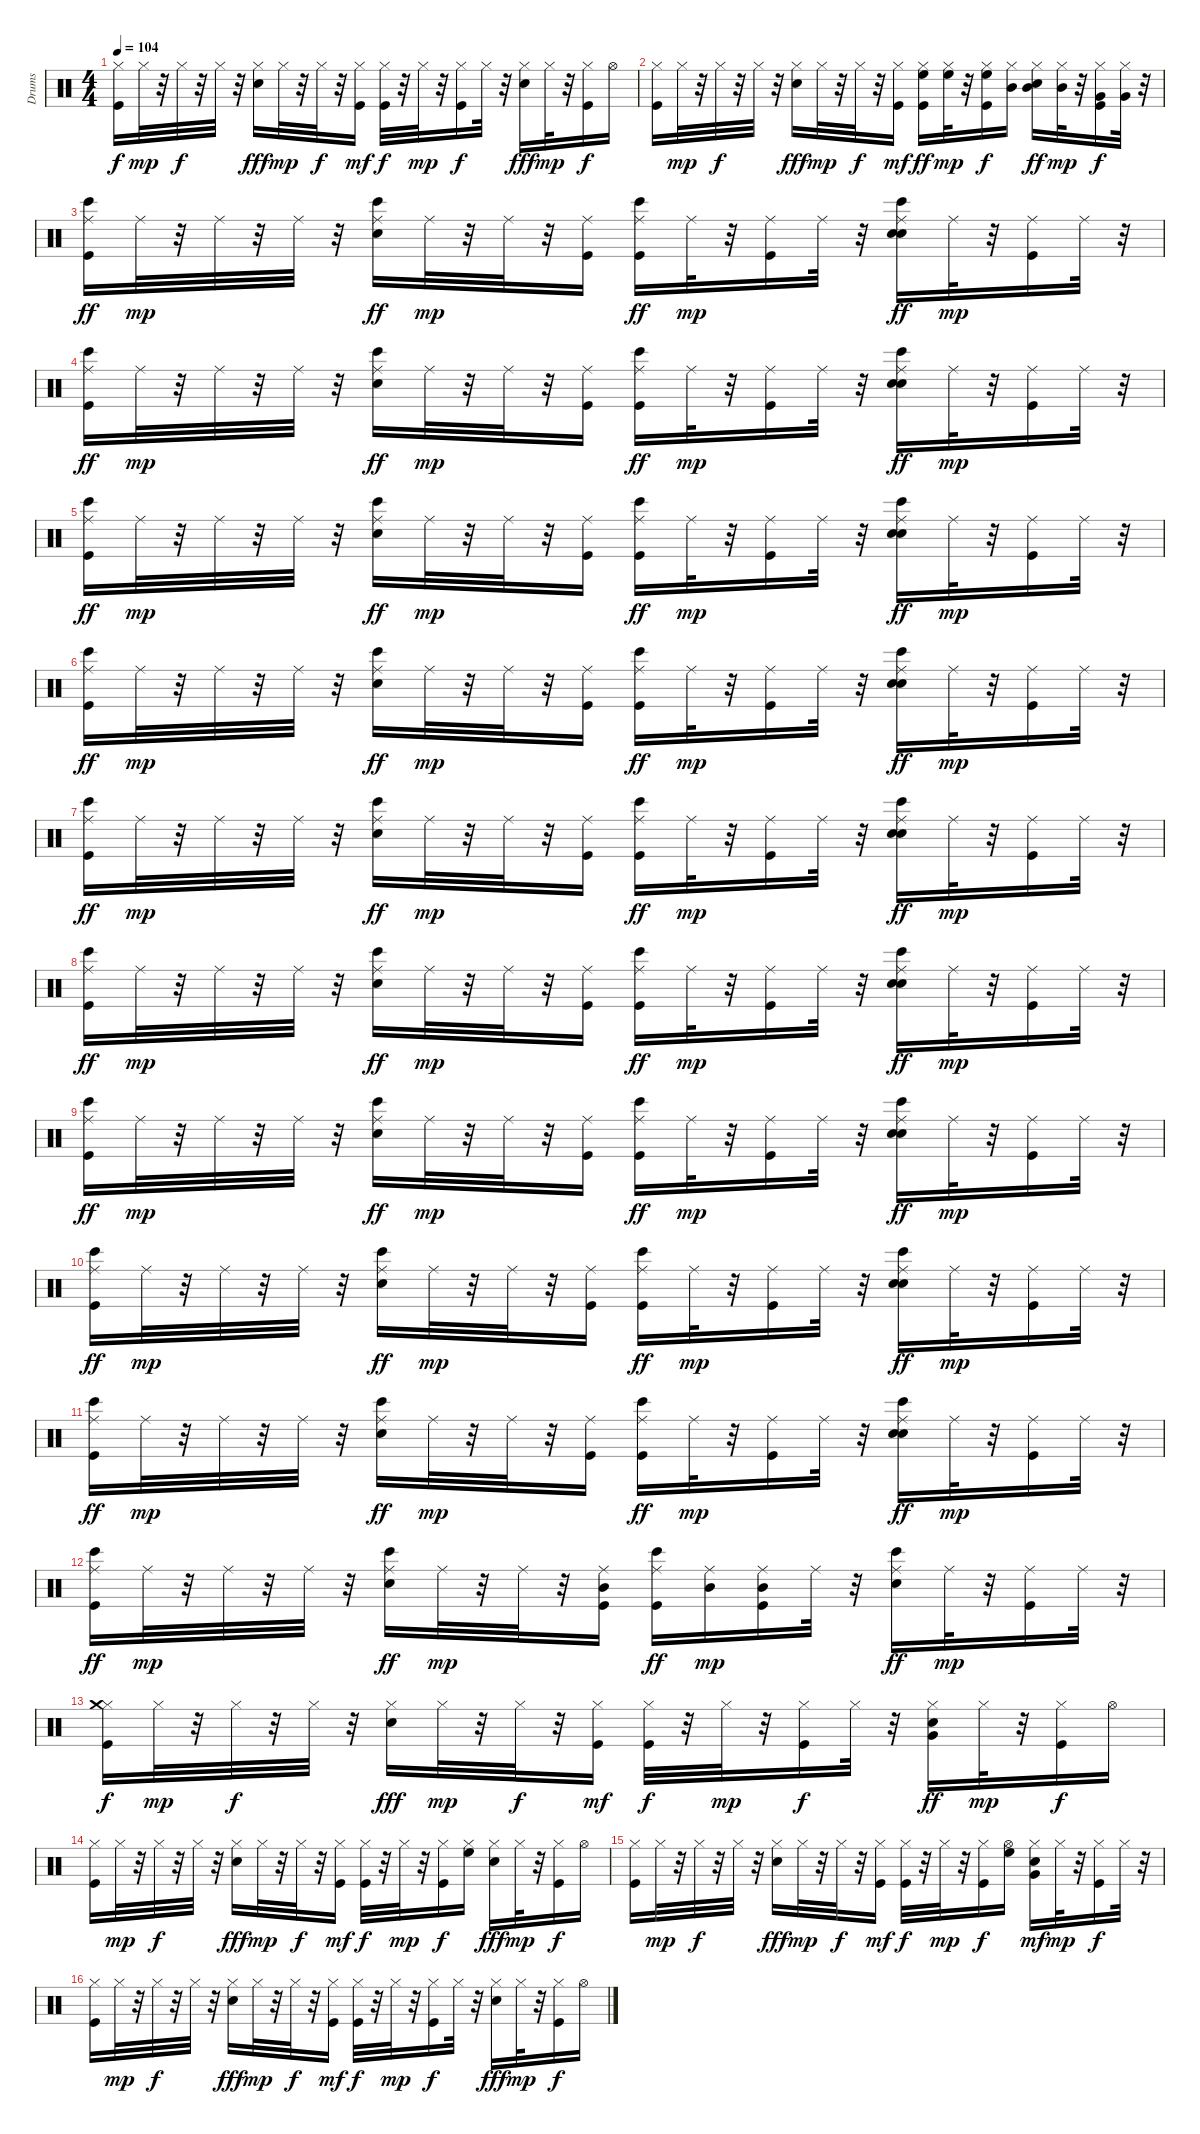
\track ("Drums   " "Drums   ") {instrument percussion}
\staff {score}
\articulation defaults
\ts (4 4)
\tempo 104
\clef neutral
\ks c
("Kick (hit)" "Hi-Hat (closed)").16{dy f} "Hi-Hat (closed)".32{dy mp} r.32 "Hi-Hat (closed)".32{dy f} r.32 "Hi-Hat (closed)".32 r.32 ("Electric Snare (hit)" "Hi-Hat (closed)").16{dy fff} "Hi-Hat (closed)".32{dy mp} r.32 "Hi-Hat (closed)".32{dy f} r.32 ("Kick (hit)" "Hi-Hat (closed)").16{dy mf} ("Kick (hit)" "Hi-Hat (closed)").32{dy f} r.32 "Hi-Hat (closed)".32{dy mp} r.32 ("Kick (hit)" "Hi-Hat (closed)").16{dy f} "Hi-Hat (closed)".32 r.32 ("Electric Snare (hit)" "Hi-Hat (closed)").16{dy fff} "Hi-Hat (closed)".32{dy mp} r.32 ("Kick (hit)" "Hi-Hat (closed)").16{dy f} "Hi-Hat (open)".16 |
("Kick (hit)" "Hi-Hat (closed)").16 "Hi-Hat (closed)".32{dy mp} r.32 "Hi-Hat (closed)".32{dy f} r.32 "Hi-Hat (closed)".32 r.32 ("Electric Snare (hit)" "Hi-Hat (closed)").16{dy fff} "Hi-Hat (closed)".32{dy mp} r.32 "Hi-Hat (closed)".32{dy f} r.32 ("Kick (hit)" "Hi-Hat (closed)").16{dy mf} ("Kick (hit)" "Hi-Hat (closed)" "High Floor Tom (hit)").16{dy ff} ("Hi-Hat (closed)" "High Floor Tom (hit)").32{dy mp} r.32 ("Kick (hit)" "Hi-Hat (closed)" "High Floor Tom (hit)").16{dy f} ("Hi-Hat (closed)" "Mid Tom (hit)").16 ("Electric Snare (hit)" "Hi-Hat (closed)" "Mid Tom (hit)").16{dy ff} ("Hi-Hat (closed)" "Mid Tom (hit)").32{dy mp} r.32 ("Kick (hit)" "Hi-Hat (closed)" "Very Low Tom (hit)").16{dy f} ("Hi-Hat (closed)" "Very Low Tom (hit)").32 r.32 |
("Kick (hit)" "Ride (middle)" "Bongo High (hit)").16{dy ff} "Ride (middle)".32{dy mp} r.32 "Ride (middle)".32 r.32 "Ride (middle)".32 r.32 ("Electric Snare (hit)" "Ride (middle)" "Bongo High (hit)").16{dy ff} "Ride (middle)".32{dy mp} r.32 "Ride (middle)".32 r.32 ("Kick (hit)" "Ride (middle)").16 ("Kick (hit)" "Ride (middle)" "Bongo High (hit)").16{dy ff} "Ride (middle)".32{dy mp} r.32 ("Kick (hit)" "Ride (middle)").16 "Ride (middle)".32 r.32 ("Hand Clap (hit)" "Electric Snare (hit)" "Ride (middle)" "Bongo High (hit)").16{dy ff} "Ride (middle)".32{dy mp} r.32 ("Kick (hit)" "Ride (middle)").16 "Ride (middle)".32 r.32 |
("Kick (hit)" "Ride (middle)" "Bongo High (hit)").16{dy ff} "Ride (middle)".32{dy mp} r.32 "Ride (middle)".32 r.32 "Ride (middle)".32 r.32 ("Electric Snare (hit)" "Ride (middle)" "Bongo High (hit)").16{dy ff} "Ride (middle)".32{dy mp} r.32 "Ride (middle)".32 r.32 ("Kick (hit)" "Ride (middle)").16 ("Kick (hit)" "Ride (middle)" "Bongo High (hit)").16{dy ff} "Ride (middle)".32{dy mp} r.32 ("Kick (hit)" "Ride (middle)").16 "Ride (middle)".32 r.32 ("Hand Clap (hit)" "Electric Snare (hit)" "Ride (middle)" "Bongo High (hit)").16{dy ff} "Ride (middle)".32{dy mp} r.32 ("Kick (hit)" "Ride (middle)").16 "Ride (middle)".32 r.32 |
("Kick (hit)" "Ride (middle)" "Bongo High (hit)").16{dy ff} "Ride (middle)".32{dy mp} r.32 "Ride (middle)".32 r.32 "Ride (middle)".32 r.32 ("Electric Snare (hit)" "Ride (middle)" "Bongo High (hit)").16{dy ff} "Ride (middle)".32{dy mp} r.32 "Ride (middle)".32 r.32 ("Kick (hit)" "Ride (middle)").16 ("Kick (hit)" "Ride (middle)" "Bongo High (hit)").16{dy ff} "Ride (middle)".32{dy mp} r.32 ("Kick (hit)" "Ride (middle)").16 "Ride (middle)".32 r.32 ("Hand Clap (hit)" "Electric Snare (hit)" "Ride (middle)" "Bongo High (hit)").16{dy ff} "Ride (middle)".32{dy mp} r.32 ("Kick (hit)" "Ride (middle)").16 "Ride (middle)".32 r.32 |
("Kick (hit)" "Ride (middle)" "Bongo High (hit)").16{dy ff} "Ride (middle)".32{dy mp} r.32 "Ride (middle)".32 r.32 "Ride (middle)".32 r.32 ("Electric Snare (hit)" "Ride (middle)" "Bongo High (hit)").16{dy ff} "Ride (middle)".32{dy mp} r.32 "Ride (middle)".32 r.32 ("Kick (hit)" "Ride (middle)").16 ("Kick (hit)" "Ride (middle)" "Bongo High (hit)").16{dy ff} "Ride (middle)".32{dy mp} r.32 ("Kick (hit)" "Ride (middle)").16 "Ride (middle)".32 r.32 ("Hand Clap (hit)" "Electric Snare (hit)" "Ride (middle)" "Bongo High (hit)").16{dy ff} "Ride (middle)".32{dy mp} r.32 ("Kick (hit)" "Ride (middle)").16 "Ride (middle)".32 r.32 |
("Kick (hit)" "Ride (middle)" "Bongo High (hit)").16{dy ff} "Ride (middle)".32{dy mp} r.32 "Ride (middle)".32 r.32 "Ride (middle)".32 r.32 ("Electric Snare (hit)" "Ride (middle)" "Bongo High (hit)").16{dy ff} "Ride (middle)".32{dy mp} r.32 "Ride (middle)".32 r.32 ("Kick (hit)" "Ride (middle)").16 ("Kick (hit)" "Ride (middle)" "Bongo High (hit)").16{dy ff} "Ride (middle)".32{dy mp} r.32 ("Kick (hit)" "Ride (middle)").16 "Ride (middle)".32 r.32 ("Hand Clap (hit)" "Electric Snare (hit)" "Ride (middle)" "Bongo High (hit)").16{dy ff} "Ride (middle)".32{dy mp} r.32 ("Kick (hit)" "Ride (middle)").16 "Ride (middle)".32 r.32 |
("Kick (hit)" "Ride (middle)" "Bongo High (hit)").16{dy ff} "Ride (middle)".32{dy mp} r.32 "Ride (middle)".32 r.32 "Ride (middle)".32 r.32 ("Electric Snare (hit)" "Ride (middle)" "Bongo High (hit)").16{dy ff} "Ride (middle)".32{dy mp} r.32 "Ride (middle)".32 r.32 ("Kick (hit)" "Ride (middle)").16 ("Kick (hit)" "Ride (middle)" "Bongo High (hit)").16{dy ff} "Ride (middle)".32{dy mp} r.32 ("Kick (hit)" "Ride (middle)").16 "Ride (middle)".32 r.32 ("Hand Clap (hit)" "Electric Snare (hit)" "Ride (middle)" "Bongo High (hit)").16{dy ff} "Ride (middle)".32{dy mp} r.32 ("Kick (hit)" "Ride (middle)").16 "Ride (middle)".32 r.32 |
("Kick (hit)" "Ride (middle)" "Bongo High (hit)").16{dy ff} "Ride (middle)".32{dy mp} r.32 "Ride (middle)".32 r.32 "Ride (middle)".32 r.32 ("Electric Snare (hit)" "Ride (middle)" "Bongo High (hit)").16{dy ff} "Ride (middle)".32{dy mp} r.32 "Ride (middle)".32 r.32 ("Kick (hit)" "Ride (middle)").16 ("Kick (hit)" "Ride (middle)" "Bongo High (hit)").16{dy ff} "Ride (middle)".32{dy mp} r.32 ("Kick (hit)" "Ride (middle)").16 "Ride (middle)".32 r.32 ("Hand Clap (hit)" "Electric Snare (hit)" "Ride (middle)" "Bongo High (hit)").16{dy ff} "Ride (middle)".32{dy mp} r.32 ("Kick (hit)" "Ride (middle)").16 "Ride (middle)".32 r.32 |
("Kick (hit)" "Ride (middle)" "Bongo High (hit)").16{dy ff} "Ride (middle)".32{dy mp} r.32 "Ride (middle)".32 r.32 "Ride (middle)".32 r.32 ("Electric Snare (hit)" "Ride (middle)" "Bongo High (hit)").16{dy ff} "Ride (middle)".32{dy mp} r.32 "Ride (middle)".32 r.32 ("Kick (hit)" "Ride (middle)").16 ("Kick (hit)" "Ride (middle)" "Bongo High (hit)").16{dy ff} "Ride (middle)".32{dy mp} r.32 ("Kick (hit)" "Ride (middle)").16 "Ride (middle)".32 r.32 ("Hand Clap (hit)" "Electric Snare (hit)" "Ride (middle)" "Bongo High (hit)").16{dy ff} "Ride (middle)".32{dy mp} r.32 ("Kick (hit)" "Ride (middle)").16 "Ride (middle)".32 r.32 |
("Kick (hit)" "Ride (middle)" "Bongo High (hit)").16{dy ff} "Ride (middle)".32{dy mp} r.32 "Ride (middle)".32 r.32 "Ride (middle)".32 r.32 ("Electric Snare (hit)" "Ride (middle)" "Bongo High (hit)").16{dy ff} "Ride (middle)".32{dy mp} r.32 "Ride (middle)".32 r.32 ("Kick (hit)" "Ride (middle)").16 ("Kick (hit)" "Ride (middle)" "Bongo High (hit)").16{dy ff} "Ride (middle)".32{dy mp} r.32 ("Kick (hit)" "Ride (middle)").16 "Ride (middle)".32 r.32 ("Hand Clap (hit)" "Electric Snare (hit)" "Ride (middle)" "Bongo High (hit)").16{dy ff} "Ride (middle)".32{dy mp} r.32 ("Kick (hit)" "Ride (middle)").16 "Ride (middle)".32 r.32 |
("Kick (hit)" "Ride (middle)" "Bongo High (hit)").16{dy ff} "Ride (middle)".32{dy mp} r.32 "Ride (middle)".32 r.32 "Ride (middle)".32 r.32 ("Electric Snare (hit)" "Ride (middle)" "Bongo High (hit)").16{dy ff} "Ride (middle)".32{dy mp} r.32 "Ride (middle)".32 r.32 ("Kick (hit)" "Mid Tom (hit)" "Ride (middle)").16 ("Kick (hit)" "Ride (middle)" "Bongo High (hit)").16{dy ff} ("Mid Tom (hit)" "Ride (middle)").16{dy mp} ("Kick (hit)" "Mid Tom (hit)" "Ride (middle)").16 "Ride (middle)".32 r.32 ("Electric Snare (hit)" "Ride (middle)" "Bongo High (hit)").16{dy ff} "Ride (middle)".32{dy mp} r.32 ("Kick (hit)" "Ride (middle)").16 "Ride (middle)".32 r.32 |
("Kick (hit)" "Hi-Hat (closed)" "Crash medium (hit)").16{dy f} "Hi-Hat (closed)".32{dy mp} r.32 "Hi-Hat (closed)".32{dy f} r.32 "Hi-Hat (closed)".32 r.32 ("Electric Snare (hit)" "Hi-Hat (closed)").16{dy fff} "Hi-Hat (closed)".32{dy mp} r.32 "Hi-Hat (closed)".32{dy f} r.32 ("Kick (hit)" "Hi-Hat (closed)").16{dy mf} ("Kick (hit)" "Hi-Hat (closed)").32{dy f} r.32 "Hi-Hat (closed)".32{dy mp} r.32 ("Kick (hit)" "Hi-Hat (closed)").16{dy f} "Hi-Hat (closed)".32 r.32 ("Electric Snare (hit)" "Hi-Hat (closed)" "Very Low Tom (hit)").16{dy ff} "Hi-Hat (closed)".32{dy mp} r.32 ("Kick (hit)" "Hi-Hat (closed)").16{dy f} "Hi-Hat (open)".16 |
("Kick (hit)" "Hi-Hat (closed)").16 "Hi-Hat (closed)".32{dy mp} r.32 "Hi-Hat (closed)".32{dy f} r.32 "Hi-Hat (closed)".32 r.32 ("Electric Snare (hit)" "Hi-Hat (closed)").16{dy fff} "Hi-Hat (closed)".32{dy mp} r.32 "Hi-Hat (closed)".32{dy f} r.32 ("Kick (hit)" "Hi-Hat (closed)").16{dy mf} ("Kick (hit)" "Hi-Hat (closed)").32{dy f} r.32 "Hi-Hat (closed)".32{dy mp} r.32 ("Kick (hit)" "Hi-Hat (closed)").16{dy f} ("Hi-Hat (closed)" "High Floor Tom (hit)").16 ("Electric Snare (hit)" "Hi-Hat (closed)").16{dy fff} "Hi-Hat (closed)".32{dy mp} r.32 ("Kick (hit)" "Hi-Hat (closed)").16{dy f} "Hi-Hat (open)".16 |
("Kick (hit)" "Hi-Hat (closed)").16 "Hi-Hat (closed)".32{dy mp} r.32 "Hi-Hat (closed)".32{dy f} r.32 "Hi-Hat (closed)".32 r.32 ("Electric Snare (hit)" "Hi-Hat (closed)").16{dy fff} "Hi-Hat (closed)".32{dy mp} r.32 "Hi-Hat (closed)".32{dy f} r.32 ("Kick (hit)" "Hi-Hat (closed)").16{dy mf} ("Kick (hit)" "Hi-Hat (closed)").32{dy f} r.32 "Hi-Hat (closed)".32{dy mp} r.32 ("Kick (hit)" "Hi-Hat (closed)").16{dy f} ("Hi-Hat (open)" "High Floor Tom (hit)").16 ("Electric Snare (hit)" "Hi-Hat (closed)" "Very Low Tom (hit)").16{dy mf} "Hi-Hat (closed)".32{dy mp} r.32 ("Kick (hit)" "Hi-Hat (closed)").16{dy f} "Hi-Hat (closed)".32 r.32 |
("Kick (hit)" "Hi-Hat (closed)").16 "Hi-Hat (closed)".32{dy mp} r.32 "Hi-Hat (closed)".32{dy f} r.32 "Hi-Hat (closed)".32 r.32 ("Electric Snare (hit)" "Hi-Hat (closed)").16{dy fff} "Hi-Hat (closed)".32{dy mp} r.32 "Hi-Hat (closed)".32{dy f} r.32 ("Kick (hit)" "Hi-Hat (closed)").16{dy mf} ("Kick (hit)" "Hi-Hat (closed)").32{dy f} r.32 "Hi-Hat (closed)".32{dy mp} r.32 ("Kick (hit)" "Hi-Hat (closed)").16{dy f} "Hi-Hat (closed)".32 r.32 ("Electric Snare (hit)" "Hi-Hat (closed)").16{dy fff} "Hi-Hat (closed)".32{dy mp} r.32 ("Kick (hit)" "Hi-Hat (closed)").16{dy f} "Hi-Hat (open)".16
